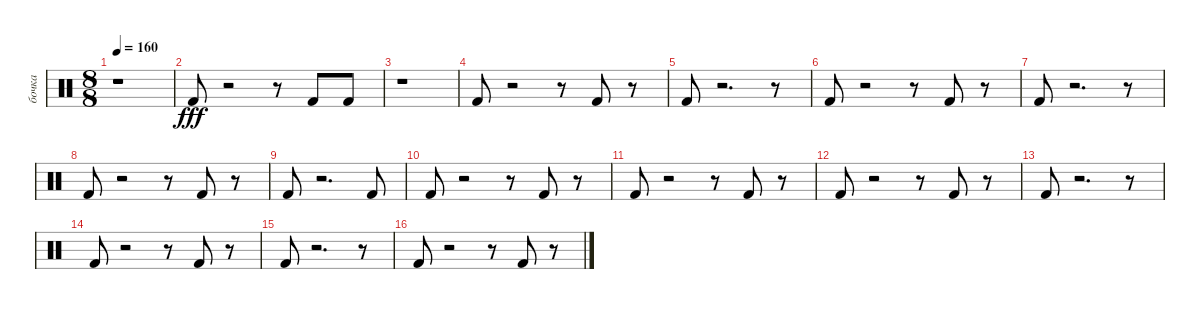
\track ("бочка" "бочка") {instrument percussion}
\staff {score}
\articulation defaults
\ts (8 8)
\tempo 160
\clef neutral
\ks c
r.1{dy fff} |
"Kick (hit) 2".8 r.2 r.8 "Kick (hit) 2".8 "Kick (hit) 2".8 |
r.1 |
"Kick (hit) 2".8 r.2 r.8 "Kick (hit) 2".8 r.8 |
"Kick (hit) 2".8 r.2{d} r.8 |
"Kick (hit) 2".8 r.2 r.8 "Kick (hit) 2".8 r.8 |
"Kick (hit) 2".8 r.2{d} r.8 |
"Kick (hit) 2".8 r.2 r.8 "Kick (hit) 2".8 r.8 |
"Kick (hit) 2".8 r.2{d} "Kick (hit) 2".8 |
"Kick (hit) 2".8 r.2 r.8 "Kick (hit) 2".8 r.8 |
"Kick (hit) 2".8 r.2 r.8 "Kick (hit) 2".8 r.8 |
"Kick (hit) 2".8 r.2 r.8 "Kick (hit) 2".8 r.8 |
"Kick (hit) 2".8 r.2{d} r.8 |
"Kick (hit) 2".8 r.2 r.8 "Kick (hit) 2".8 r.8 |
"Kick (hit) 2".8 r.2{d} r.8 |
"Kick (hit) 2".8 r.2 r.8 "Kick (hit) 2".8 r.8
